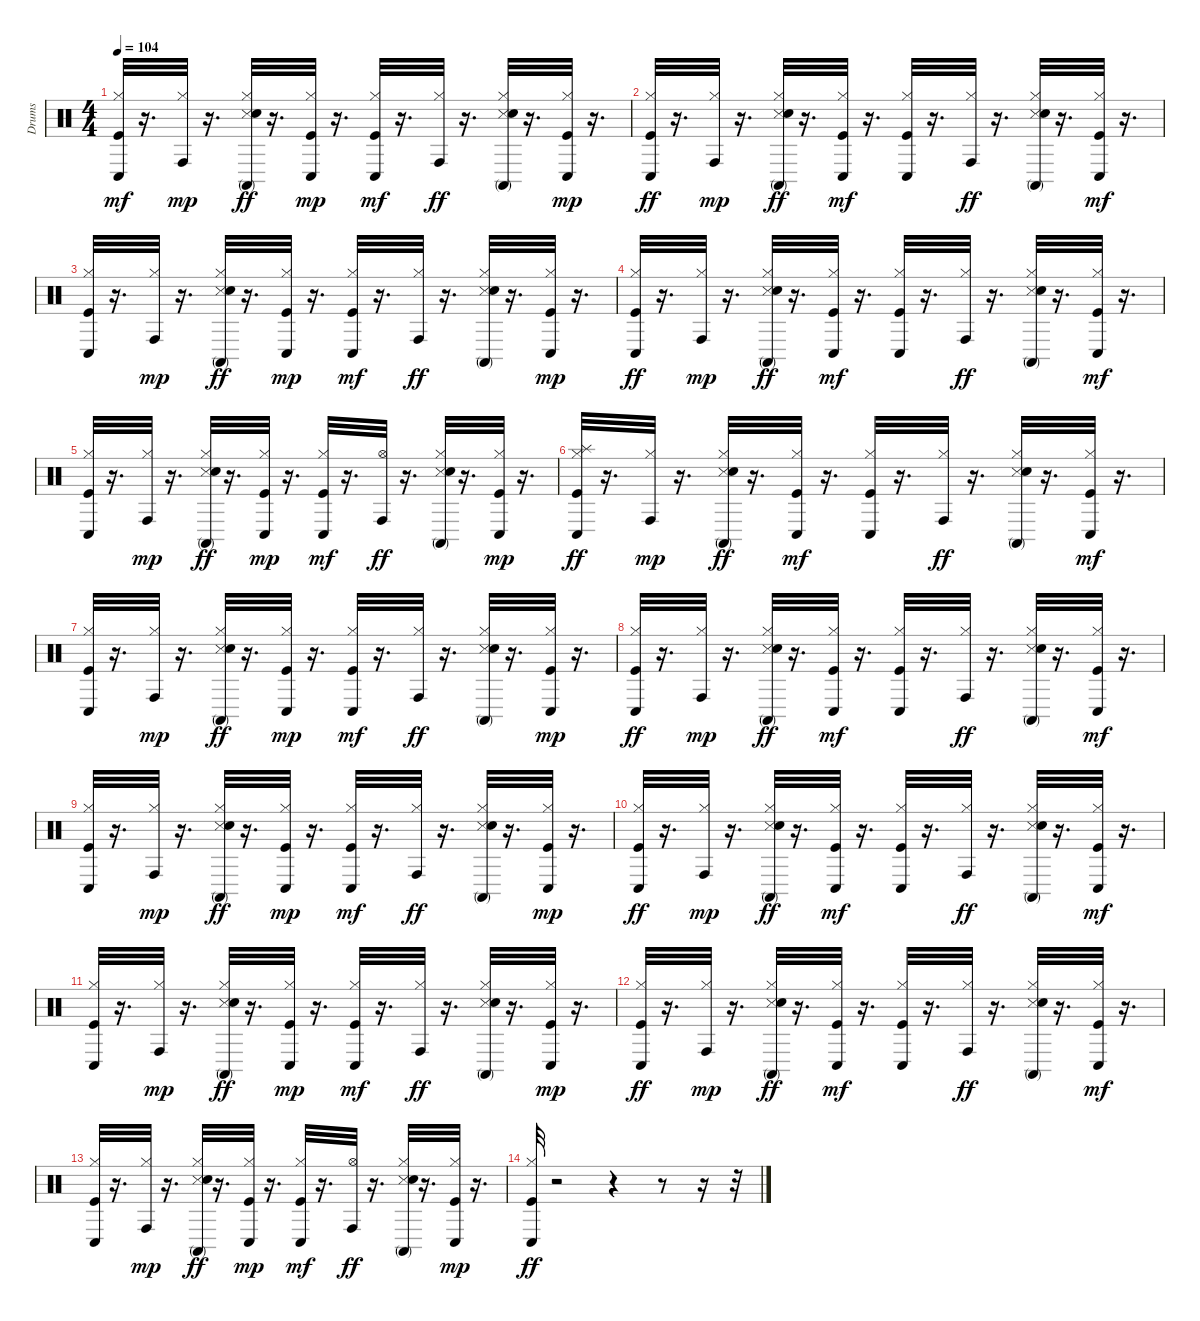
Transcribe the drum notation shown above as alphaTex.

\track ("Drums" "Drums") {instrument percussion}
\staff {score}
\articulation defaults
\ts (4 4)
\tempo 104
\clef neutral
\ks c
("Kick (hit)" "Hi-Hat (closed)" "Conga low (hit)").32{dy mf} r.16{d} ("Hi-Hat (closed)" "Conga high (hit)").32{dy mp} r.16{d} ("Snare (side stick) 3" "Hi-Hat (closed)" "Conga high (mute)" "Snare (hit) 2").32{dy ff} r.16{d} ("Kick (hit)" "Hi-Hat (closed)" "Conga low (hit)").32{dy mp} r.16{d} ("Kick (hit)" "Hi-Hat (closed)" "Conga low (hit)").32{dy mf} r.16{d} ("Hi-Hat (closed)" "Conga high (hit)").32{dy ff} r.16{d} ("Snare (side stick) 3" "Hi-Hat (closed)" "Conga high (mute)" "Snare (hit) 2").32 r.16{d} ("Kick (hit)" "Hi-Hat (closed)" "Conga low (hit)").32{dy mp} r.16{d} |
("Kick (hit)" "Hi-Hat (closed)" "Conga low (hit)").32{dy ff} r.16{d} ("Hi-Hat (closed)" "Conga high (hit)").32{dy mp} r.16{d} ("Snare (side stick) 3" "Hi-Hat (closed)" "Conga high (mute)" "Snare (hit) 2").32{dy ff} r.16{d} ("Kick (hit)" "Hi-Hat (closed)" "Conga low (hit)").32{dy mf} r.16{d} ("Kick (hit)" "Hi-Hat (closed)" "Conga low (hit)").32 r.16{d} ("Hi-Hat (closed)" "Conga high (hit)").32{dy ff} r.16{d} ("Snare (side stick) 3" "Hi-Hat (closed)" "Conga high (mute)" "Snare (hit) 2").32 r.16{d} ("Kick (hit)" "Hi-Hat (closed)" "Conga low (hit)").32{dy mf} r.16{d} |
("Kick (hit)" "Hi-Hat (closed)" "Conga low (hit)").32 r.16{d} ("Hi-Hat (closed)" "Conga high (hit)").32{dy mp} r.16{d} ("Snare (side stick) 3" "Hi-Hat (closed)" "Conga high (mute)" "Snare (hit) 2").32{dy ff} r.16{d} ("Kick (hit)" "Hi-Hat (closed)" "Conga low (hit)").32{dy mp} r.16{d} ("Kick (hit)" "Hi-Hat (closed)" "Conga low (hit)").32{dy mf} r.16{d} ("Hi-Hat (closed)" "Conga high (hit)").32{dy ff} r.16{d} ("Snare (side stick) 3" "Hi-Hat (closed)" "Conga high (mute)" "Snare (hit) 2").32 r.16{d} ("Kick (hit)" "Hi-Hat (closed)" "Conga low (hit)").32{dy mp} r.16{d} |
("Kick (hit)" "Hi-Hat (closed)" "Conga low (hit)").32{dy ff} r.16{d} ("Hi-Hat (closed)" "Conga high (hit)").32{dy mp} r.16{d} ("Snare (side stick) 3" "Hi-Hat (closed)" "Conga high (mute)" "Snare (hit) 2").32{dy ff} r.16{d} ("Kick (hit)" "Hi-Hat (closed)" "Conga low (hit)").32{dy mf} r.16{d} ("Kick (hit)" "Hi-Hat (closed)" "Conga low (hit)").32 r.16{d} ("Hi-Hat (closed)" "Conga high (hit)").32{dy ff} r.16{d} ("Snare (side stick) 3" "Hi-Hat (closed)" "Conga high (mute)" "Snare (hit) 2").32 r.16{d} ("Kick (hit)" "Hi-Hat (closed)" "Conga low (hit)").32{dy mf} r.16{d} |
("Kick (hit)" "Hi-Hat (closed)" "Conga low (hit)").32 r.16{d} ("Hi-Hat (closed)" "Conga high (hit)").32{dy mp} r.16{d} ("Snare (side stick) 3" "Hi-Hat (closed)" "Conga high (mute)" "Snare (hit) 2").32{dy ff} r.16{d} ("Kick (hit)" "Hi-Hat (closed)" "Conga low (hit)").32{dy mp} r.16{d} ("Kick (hit)" "Hi-Hat (closed)" "Conga low (hit)").32{dy mf} r.16{d} ("Hi-Hat (open)" "Conga high (hit)").32{dy ff} r.16{d} ("Snare (side stick) 3" "Hi-Hat (closed)" "Conga high (mute)" "Snare (hit) 2").32 r.16{d} ("Kick (hit)" "Hi-Hat (closed)" "Conga low (hit)").32{dy mp} r.16{d} |
("Splash (hit)" "Kick (hit)" "Hi-Hat (closed)" "Conga low (hit)").32{dy ff} r.16{d} ("Hi-Hat (closed)" "Conga high (hit)").32{dy mp} r.16{d} ("Snare (side stick) 3" "Hi-Hat (closed)" "Conga high (mute)" "Snare (hit) 2").32{dy ff} r.16{d} ("Kick (hit)" "Hi-Hat (closed)" "Conga low (hit)").32{dy mf} r.16{d} ("Kick (hit)" "Hi-Hat (closed)" "Conga low (hit)").32 r.16{d} ("Hi-Hat (closed)" "Conga high (hit)").32{dy ff} r.16{d} ("Snare (side stick) 3" "Hi-Hat (closed)" "Conga high (mute)" "Snare (hit) 2").32 r.16{d} ("Kick (hit)" "Hi-Hat (closed)" "Conga low (hit)").32{dy mf} r.16{d} |
("Kick (hit)" "Hi-Hat (closed)" "Conga low (hit)").32 r.16{d} ("Hi-Hat (closed)" "Conga high (hit)").32{dy mp} r.16{d} ("Snare (side stick) 3" "Hi-Hat (closed)" "Conga high (mute)" "Snare (hit) 2").32{dy ff} r.16{d} ("Kick (hit)" "Hi-Hat (closed)" "Conga low (hit)").32{dy mp} r.16{d} ("Kick (hit)" "Hi-Hat (closed)" "Conga low (hit)").32{dy mf} r.16{d} ("Hi-Hat (closed)" "Conga high (hit)").32{dy ff} r.16{d} ("Snare (side stick) 3" "Hi-Hat (closed)" "Conga high (mute)" "Snare (hit) 2").32 r.16{d} ("Kick (hit)" "Hi-Hat (closed)" "Conga low (hit)").32{dy mp} r.16{d} |
("Kick (hit)" "Hi-Hat (closed)" "Conga low (hit)").32{dy ff} r.16{d} ("Hi-Hat (closed)" "Conga high (hit)").32{dy mp} r.16{d} ("Snare (side stick) 3" "Hi-Hat (closed)" "Conga high (mute)" "Snare (hit) 2").32{dy ff} r.16{d} ("Kick (hit)" "Hi-Hat (closed)" "Conga low (hit)").32{dy mf} r.16{d} ("Kick (hit)" "Hi-Hat (closed)" "Conga low (hit)").32 r.16{d} ("Hi-Hat (closed)" "Conga high (hit)").32{dy ff} r.16{d} ("Snare (side stick) 3" "Hi-Hat (closed)" "Conga high (mute)" "Snare (hit) 2").32 r.16{d} ("Kick (hit)" "Hi-Hat (closed)" "Conga low (hit)").32{dy mf} r.16{d} |
("Kick (hit)" "Hi-Hat (closed)" "Conga low (hit)").32 r.16{d} ("Hi-Hat (closed)" "Conga high (hit)").32{dy mp} r.16{d} ("Snare (side stick) 3" "Hi-Hat (closed)" "Conga high (mute)" "Snare (hit) 2").32{dy ff} r.16{d} ("Kick (hit)" "Hi-Hat (closed)" "Conga low (hit)").32{dy mp} r.16{d} ("Kick (hit)" "Hi-Hat (closed)" "Conga low (hit)").32{dy mf} r.16{d} ("Hi-Hat (closed)" "Conga high (hit)").32{dy ff} r.16{d} ("Snare (side stick) 3" "Hi-Hat (closed)" "Conga high (mute)" "Snare (hit) 2").32 r.16{d} ("Kick (hit)" "Hi-Hat (closed)" "Conga low (hit)").32{dy mp} r.16{d} |
("Kick (hit)" "Hi-Hat (closed)" "Conga low (hit)").32{dy ff} r.16{d} ("Hi-Hat (closed)" "Conga high (hit)").32{dy mp} r.16{d} ("Snare (side stick) 3" "Hi-Hat (closed)" "Conga high (mute)" "Snare (hit) 2").32{dy ff} r.16{d} ("Kick (hit)" "Hi-Hat (closed)" "Conga low (hit)").32{dy mf} r.16{d} ("Kick (hit)" "Hi-Hat (closed)" "Conga low (hit)").32 r.16{d} ("Hi-Hat (closed)" "Conga high (hit)").32{dy ff} r.16{d} ("Snare (side stick) 3" "Hi-Hat (closed)" "Conga high (mute)" "Snare (hit) 2").32 r.16{d} ("Kick (hit)" "Hi-Hat (closed)" "Conga low (hit)").32{dy mf} r.16{d} |
("Kick (hit)" "Hi-Hat (closed)" "Conga low (hit)").32 r.16{d} ("Hi-Hat (closed)" "Conga high (hit)").32{dy mp} r.16{d} ("Snare (side stick) 3" "Hi-Hat (closed)" "Conga high (mute)" "Snare (hit) 2").32{dy ff} r.16{d} ("Kick (hit)" "Hi-Hat (closed)" "Conga low (hit)").32{dy mp} r.16{d} ("Kick (hit)" "Hi-Hat (closed)" "Conga low (hit)").32{dy mf} r.16{d} ("Hi-Hat (closed)" "Conga high (hit)").32{dy ff} r.16{d} ("Snare (side stick) 3" "Hi-Hat (closed)" "Conga high (mute)" "Snare (hit) 2").32 r.16{d} ("Kick (hit)" "Hi-Hat (closed)" "Conga low (hit)").32{dy mp} r.16{d} |
("Kick (hit)" "Hi-Hat (closed)" "Conga low (hit)").32{dy ff} r.16{d} ("Hi-Hat (closed)" "Conga high (hit)").32{dy mp} r.16{d} ("Snare (side stick) 3" "Hi-Hat (closed)" "Conga high (mute)" "Snare (hit) 2").32{dy ff} r.16{d} ("Kick (hit)" "Hi-Hat (closed)" "Conga low (hit)").32{dy mf} r.16{d} ("Kick (hit)" "Hi-Hat (closed)" "Conga low (hit)").32 r.16{d} ("Hi-Hat (closed)" "Conga high (hit)").32{dy ff} r.16{d} ("Snare (side stick) 3" "Hi-Hat (closed)" "Conga high (mute)" "Snare (hit) 2").32 r.16{d} ("Kick (hit)" "Hi-Hat (closed)" "Conga low (hit)").32{dy mf} r.16{d} |
("Kick (hit)" "Hi-Hat (closed)" "Conga low (hit)").32 r.16{d} ("Hi-Hat (closed)" "Conga high (hit)").32{dy mp} r.16{d} ("Snare (side stick) 3" "Hi-Hat (closed)" "Conga high (mute)" "Snare (hit) 2").32{dy ff} r.16{d} ("Kick (hit)" "Hi-Hat (closed)" "Conga low (hit)").32{dy mp} r.16{d} ("Kick (hit)" "Hi-Hat (closed)" "Conga low (hit)").32{dy mf} r.16{d} ("Hi-Hat (open)" "Conga high (hit)").32{dy ff} r.16{d} ("Snare (side stick) 3" "Hi-Hat (closed)" "Conga high (mute)" "Snare (hit) 2").32 r.16{d} ("Kick (hit)" "Hi-Hat (closed)" "Conga low (hit)").32{dy mp} r.16{d} |
("Kick (hit)" "Hi-Hat (closed)" "Conga low (hit)").32{dy ff} r.2 r.4 r.8 r.16 r.32
